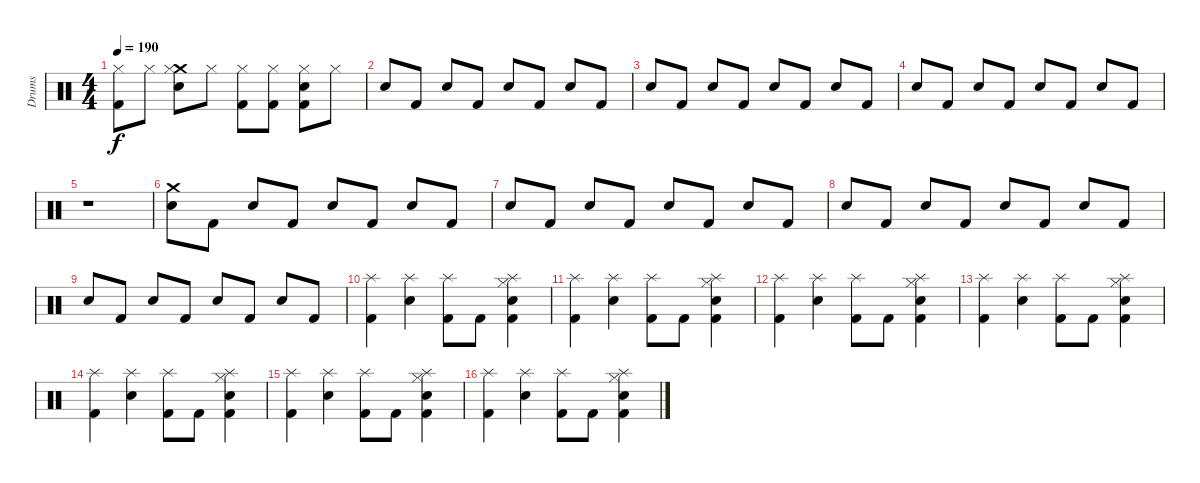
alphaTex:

\track ("Drums" "Drums") {instrument percussion}
\staff {score}
\articulation defaults
\ts (4 4)
\tempo 190
\clef neutral
\ks c
("Hi-Hat (closed)" "Kick (hit) 2").8{dy f} "Hi-Hat (closed)".8 ("Crash medium (hit)" "Hi-Hat (closed)" "Electric Snare (hit)").8 "Hi-Hat (closed)".8 ("Hi-Hat (closed)" "Kick (hit) 2").8 ("Hi-Hat (closed)" "Kick (hit) 2").8 ("Hi-Hat (closed)" "Electric Snare (hit)" "Kick (hit) 2").8 "Hi-Hat (closed)".8 |
"Electric Snare (hit)".8 "Kick (hit) 2".8 "Electric Snare (hit)".8 "Kick (hit) 2".8 "Electric Snare (hit)".8 "Kick (hit) 2".8 "Electric Snare (hit)".8 "Kick (hit) 2".8 |
"Electric Snare (hit)".8 "Kick (hit) 2".8 "Electric Snare (hit)".8 "Kick (hit) 2".8 "Electric Snare (hit)".8 "Kick (hit) 2".8 "Electric Snare (hit)".8 "Kick (hit) 2".8 |
"Electric Snare (hit)".8 "Kick (hit) 2".8 "Electric Snare (hit)".8 "Kick (hit) 2".8 "Electric Snare (hit)".8 "Kick (hit) 2".8 "Electric Snare (hit)".8 "Kick (hit) 2".8 |
r.1 |
("Crash medium (hit)" "Electric Snare (hit)").8 "Kick (hit) 2".8 "Electric Snare (hit)".8 "Kick (hit) 2".8 "Electric Snare (hit)".8 "Kick (hit) 2".8 "Electric Snare (hit)".8 "Kick (hit) 2".8 |
"Electric Snare (hit)".8 "Kick (hit) 2".8 "Electric Snare (hit)".8 "Kick (hit) 2".8 "Electric Snare (hit)".8 "Kick (hit) 2".8 "Electric Snare (hit)".8 "Kick (hit) 2".8 |
"Electric Snare (hit)".8 "Kick (hit) 2".8 "Electric Snare (hit)".8 "Kick (hit) 2".8 "Electric Snare (hit)".8 "Kick (hit) 2".8 "Electric Snare (hit)".8 "Kick (hit) 2".8 |
"Electric Snare (hit)".8 "Kick (hit) 2".8 "Electric Snare (hit)".8 "Kick (hit) 2".8 "Electric Snare (hit)".8 "Kick (hit) 2".8 "Electric Snare (hit)".8 "Kick (hit) 2".8 |
("Splash (hit)" "Kick (hit) 2").4 ("Splash (hit)" "Electric Snare (hit)").4 ("Splash (hit)" "Kick (hit) 2").8 "Kick (hit) 2".8 ("Splash (hit)" "Hi-Hat (closed)" "Electric Snare (hit)" "Kick (hit) 2").4 |
("Splash (hit)" "Kick (hit) 2").4 ("Splash (hit)" "Electric Snare (hit)").4 ("Splash (hit)" "Kick (hit) 2").8 "Kick (hit) 2".8 ("Splash (hit)" "Hi-Hat (closed)" "Electric Snare (hit)" "Kick (hit) 2").4 |
("Splash (hit)" "Kick (hit) 2").4 ("Splash (hit)" "Electric Snare (hit)").4 ("Splash (hit)" "Kick (hit) 2").8 "Kick (hit) 2".8 ("Splash (hit)" "Hi-Hat (closed)" "Electric Snare (hit)" "Kick (hit) 2").4 |
("Splash (hit)" "Kick (hit) 2").4 ("Splash (hit)" "Electric Snare (hit)").4 ("Splash (hit)" "Kick (hit) 2").8 "Kick (hit) 2".8 ("Splash (hit)" "Hi-Hat (closed)" "Electric Snare (hit)" "Kick (hit) 2").4 |
("Splash (hit)" "Kick (hit) 2").4 ("Splash (hit)" "Electric Snare (hit)").4 ("Splash (hit)" "Kick (hit) 2").8 "Kick (hit) 2".8 ("Splash (hit)" "Hi-Hat (closed)" "Electric Snare (hit)" "Kick (hit) 2").4 |
("Splash (hit)" "Kick (hit) 2").4 ("Splash (hit)" "Electric Snare (hit)").4 ("Splash (hit)" "Kick (hit) 2").8 "Kick (hit) 2".8 ("Splash (hit)" "Hi-Hat (closed)" "Electric Snare (hit)" "Kick (hit) 2").4 |
("Splash (hit)" "Kick (hit) 2").4 ("Splash (hit)" "Electric Snare (hit)").4 ("Splash (hit)" "Kick (hit) 2").8 "Kick (hit) 2".8 ("Splash (hit)" "Hi-Hat (closed)" "Electric Snare (hit)" "Kick (hit) 2").4
